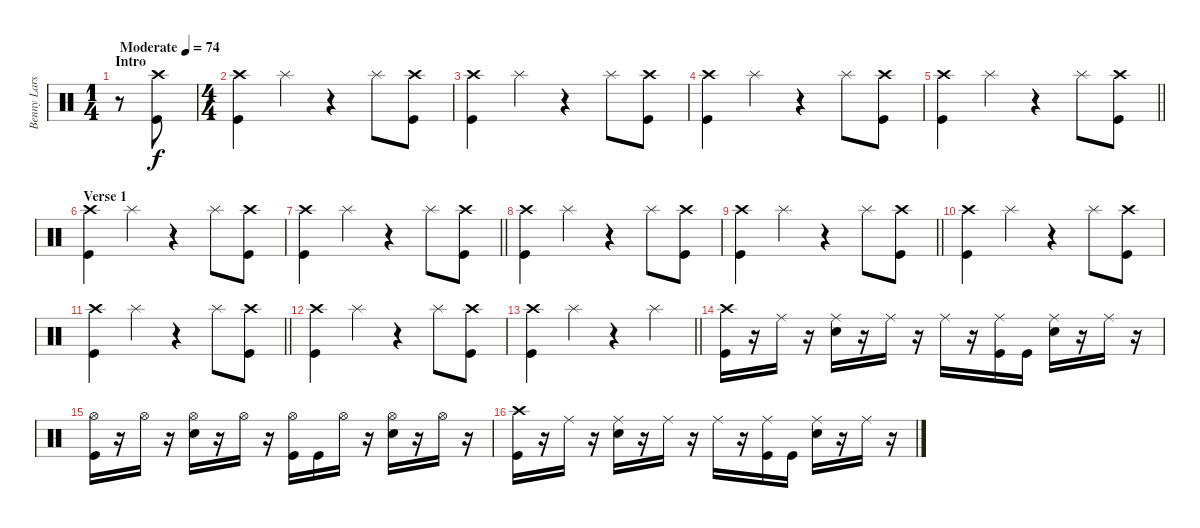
\track ("Benny Larsson" "Benny Lars") {instrument percussion}
\staff {score}
\articulation defaults
\ts (1 4)
\section ("" "Intro")
\tempo (74 "Moderate")
\clef neutral
\ks c
r.8{dy f} ("Crash high (hit)" "Kick (hit)").8 |
\ts (4 4)
("Crash high (hit)" "Kick (hit)").4 "Splash (hit)".4 r.4 "Splash (hit)".8 ("Crash high (hit)" "Kick (hit)").8 |
("Crash high (hit)" "Kick (hit)").4 "Splash (hit)".4 r.4 "Splash (hit)".8 ("Crash high (hit)" "Kick (hit)").8 |
("Crash high (hit)" "Kick (hit)").4 "Splash (hit)".4 r.4 "Splash (hit)".8 ("Crash high (hit)" "Kick (hit)").8 |
\barLineRight lightlight
("Crash high (hit)" "Kick (hit)").4 "Splash (hit)".4 r.4 "Splash (hit)".8 ("Crash high (hit)" "Kick (hit)").8 |
\section ("" "Verse 1")
("Crash high (hit)" "Kick (hit)").4 "Splash (hit)".4 r.4 "Splash (hit)".8 ("Crash high (hit)" "Kick (hit)").8 |
\barLineRight lightlight
("Crash high (hit)" "Kick (hit)").4 "Splash (hit)".4 r.4 "Splash (hit)".8 ("Crash high (hit)" "Kick (hit)").8 |
("Crash high (hit)" "Kick (hit)").4 "Splash (hit)".4 r.4 "Splash (hit)".8 ("Crash high (hit)" "Kick (hit)").8 |
\barLineRight lightlight
("Crash high (hit)" "Kick (hit)").4 "Splash (hit)".4 r.4 "Splash (hit)".8 ("Crash high (hit)" "Kick (hit)").8 |
("Crash high (hit)" "Kick (hit)").4 "Splash (hit)".4 r.4 "Splash (hit)".8 ("Crash high (hit)" "Kick (hit)").8 |
\barLineRight lightlight
("Crash high (hit)" "Kick (hit)").4 "Splash (hit)".4 r.4 "Splash (hit)".8 ("Crash high (hit)" "Kick (hit)").8 |
("Crash high (hit)" "Kick (hit)").4 "Splash (hit)".4 r.4 "Splash (hit)".8 ("Crash high (hit)" "Kick (hit)").8 |
\barLineRight lightlight
("Crash high (hit)" "Kick (hit)").4 "Splash (hit)".4 r.4 "Splash (hit)".4 |
("Crash high (hit)" "Kick (hit)").16 r.16 "Ride (middle)".16 r.16 ("Ride (middle)" "Snare (hit) 2").16 r.16 "Ride (middle)".16 r.16 "Ride (middle)".16 r.16 ("Ride (middle)" "Kick (hit)").16 "Kick (hit)".16 ("Ride (middle)" "Snare (hit) 2").16 r.16 "Ride (middle)".16 r.16 |
("Hi-Hat (open)" "Kick (hit)").16 r.16 "Hi-Hat (open)".16 r.16 ("Hi-Hat (open)" "Snare (hit) 2").16 r.16 "Hi-Hat (open)".16 r.16 ("Hi-Hat (open)" "Kick (hit)").16 "Kick (hit)".16 "Hi-Hat (open)".16 r.16 ("Hi-Hat (open)" "Snare (hit) 2").16 r.16 "Hi-Hat (open)".16 r.16 |
("Crash high (hit)" "Kick (hit)").16 r.16 "Ride (middle)".16 r.16 ("Ride (middle)" "Snare (hit) 2").16 r.16 "Ride (middle)".16 r.16 "Ride (middle)".16 r.16 ("Ride (middle)" "Kick (hit)").16 "Kick (hit)".16 ("Ride (middle)" "Snare (hit) 2").16 r.16 "Ride (middle)".16 r.16
